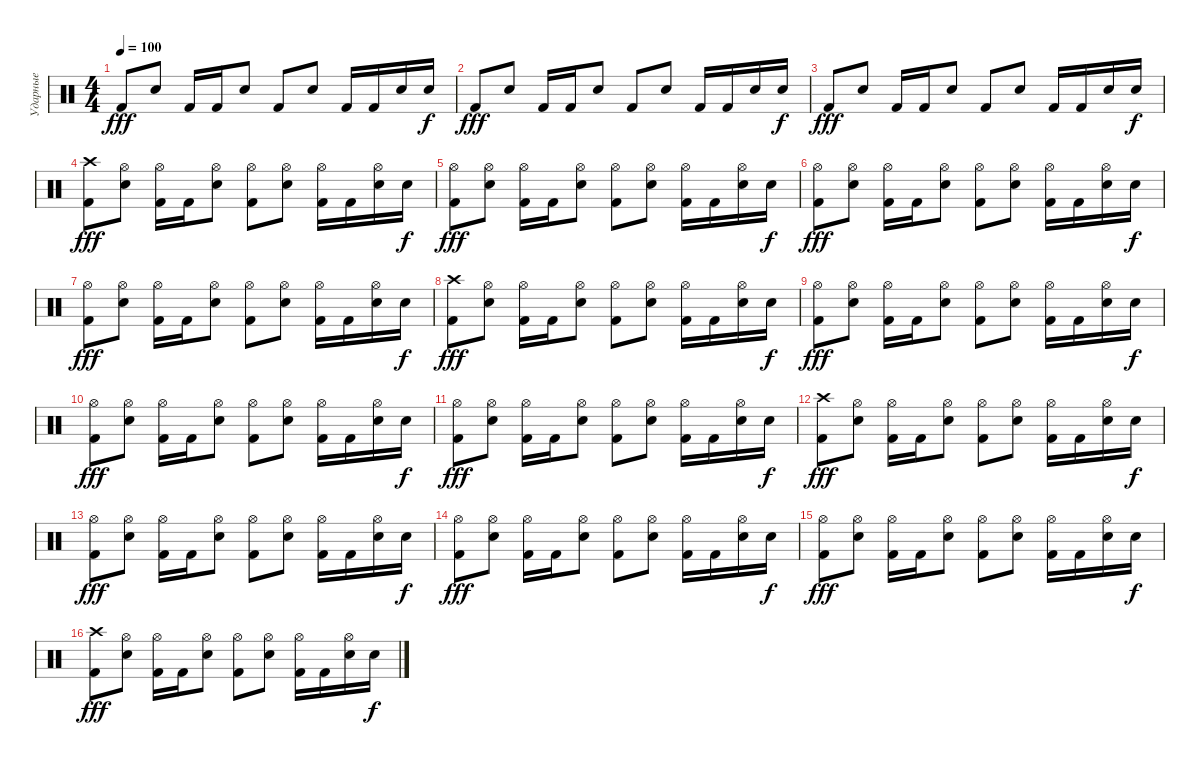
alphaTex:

\track ("Ударные" "Ударные") {instrument percussion}
\staff {score}
\articulation defaults
\ts (4 4)
\tempo 100
\clef neutral
\ks c "Kick (hit) 2".8{dy fff} "Snare (hit) 2".8 "Kick (hit) 2".16 "Kick (hit) 2".16 "Snare (hit) 2".8 "Kick (hit) 2".8 "Snare (hit) 2".8 "Kick (hit) 2".16 "Kick (hit) 2".16 "Snare (hit) 2".16 "Snare (hit) 2".16{dy f}
|
"Kick (hit) 2".8{dy fff} "Snare (hit) 2".8 "Kick (hit) 2".16 "Kick (hit) 2".16 "Snare (hit) 2".8 "Kick (hit) 2".8 "Snare (hit) 2".8 "Kick (hit) 2".16 "Kick (hit) 2".16 "Snare (hit) 2".16 "Snare (hit) 2".16{dy f} |
"Kick (hit) 2".8{dy fff} "Snare (hit) 2".8 "Kick (hit) 2".16 "Kick (hit) 2".16 "Snare (hit) 2".8 "Kick (hit) 2".8 "Snare (hit) 2".8 "Kick (hit) 2".16 "Kick (hit) 2".16 "Snare (hit) 2".16 "Snare (hit) 2".16{dy f} |
("Crash high (hit)" "Kick (hit) 2").8{dy fff} ("Hi-Hat (open)" "Snare (hit) 2").8 ("Hi-Hat (open)" "Kick (hit) 2").16 "Kick (hit) 2".16 ("Hi-Hat (open)" "Snare (hit) 2").8 ("Hi-Hat (open)" "Kick (hit) 2").8 ("Hi-Hat (open)" "Snare (hit) 2").8 ("Hi-Hat (open)" "Kick (hit) 2").16 "Kick (hit) 2".16 ("Hi-Hat (open)" "Snare (hit) 2").16 "Snare (hit) 2".16{dy f} |
("Hi-Hat (open)" "Kick (hit) 2").8{dy fff} ("Hi-Hat (open)" "Snare (hit) 2").8 ("Hi-Hat (open)" "Kick (hit) 2").16 "Kick (hit) 2".16 ("Hi-Hat (open)" "Snare (hit) 2").8 ("Hi-Hat (open)" "Kick (hit) 2").8 ("Hi-Hat (open)" "Snare (hit) 2").8 ("Hi-Hat (open)" "Kick (hit) 2").16 "Kick (hit) 2".16 ("Hi-Hat (open)" "Snare (hit) 2").16 "Snare (hit) 2".16{dy f} |
("Hi-Hat (open)" "Kick (hit) 2").8{dy fff} ("Hi-Hat (open)" "Snare (hit) 2").8 ("Hi-Hat (open)" "Kick (hit) 2").16 "Kick (hit) 2".16 ("Hi-Hat (open)" "Snare (hit) 2").8 ("Hi-Hat (open)" "Kick (hit) 2").8 ("Hi-Hat (open)" "Snare (hit) 2").8 ("Hi-Hat (open)" "Kick (hit) 2").16 "Kick (hit) 2".16 ("Hi-Hat (open)" "Snare (hit) 2").16 "Snare (hit) 2".16{dy f} |
("Hi-Hat (open)" "Kick (hit) 2").8{dy fff} ("Hi-Hat (open)" "Snare (hit) 2").8 ("Hi-Hat (open)" "Kick (hit) 2").16 "Kick (hit) 2".16 ("Hi-Hat (open)" "Snare (hit) 2").8 ("Hi-Hat (open)" "Kick (hit) 2").8 ("Hi-Hat (open)" "Snare (hit) 2").8 ("Hi-Hat (open)" "Kick (hit) 2").16 "Kick (hit) 2".16 ("Hi-Hat (open)" "Snare (hit) 2").16 "Snare (hit) 2".16{dy f} |
("Crash high (hit)" "Kick (hit) 2").8{dy fff} ("Hi-Hat (open)" "Snare (hit) 2").8 ("Hi-Hat (open)" "Kick (hit) 2").16 "Kick (hit) 2".16 ("Hi-Hat (open)" "Snare (hit) 2").8 ("Hi-Hat (open)" "Kick (hit) 2").8 ("Hi-Hat (open)" "Snare (hit) 2").8 ("Hi-Hat (open)" "Kick (hit) 2").16 "Kick (hit) 2".16 ("Hi-Hat (open)" "Snare (hit) 2").16 "Snare (hit) 2".16{dy f} |
("Hi-Hat (open)" "Kick (hit) 2").8{dy fff} ("Hi-Hat (open)" "Snare (hit) 2").8 ("Hi-Hat (open)" "Kick (hit) 2").16 "Kick (hit) 2".16 ("Hi-Hat (open)" "Snare (hit) 2").8 ("Hi-Hat (open)" "Kick (hit) 2").8 ("Hi-Hat (open)" "Snare (hit) 2").8 ("Hi-Hat (open)" "Kick (hit) 2").16 "Kick (hit) 2".16 ("Hi-Hat (open)" "Snare (hit) 2").16 "Snare (hit) 2".16{dy f} |
("Hi-Hat (open)" "Kick (hit) 2").8{dy fff} ("Hi-Hat (open)" "Snare (hit) 2").8 ("Hi-Hat (open)" "Kick (hit) 2").16 "Kick (hit) 2".16 ("Hi-Hat (open)" "Snare (hit) 2").8 ("Hi-Hat (open)" "Kick (hit) 2").8 ("Hi-Hat (open)" "Snare (hit) 2").8 ("Hi-Hat (open)" "Kick (hit) 2").16 "Kick (hit) 2".16 ("Hi-Hat (open)" "Snare (hit) 2").16 "Snare (hit) 2".16{dy f} |
("Hi-Hat (open)" "Kick (hit) 2").8{dy fff} ("Hi-Hat (open)" "Snare (hit) 2").8 ("Hi-Hat (open)" "Kick (hit) 2").16 "Kick (hit) 2".16 ("Hi-Hat (open)" "Snare (hit) 2").8 ("Hi-Hat (open)" "Kick (hit) 2").8 ("Hi-Hat (open)" "Snare (hit) 2").8 ("Hi-Hat (open)" "Kick (hit) 2").16 "Kick (hit) 2".16 ("Hi-Hat (open)" "Snare (hit) 2").16 "Snare (hit) 2".16{dy f} |
("Crash high (hit)" "Kick (hit) 2").8{dy fff} ("Hi-Hat (open)" "Snare (hit) 2").8 ("Hi-Hat (open)" "Kick (hit) 2").16 "Kick (hit) 2".16 ("Hi-Hat (open)" "Snare (hit) 2").8 ("Hi-Hat (open)" "Kick (hit) 2").8 ("Hi-Hat (open)" "Snare (hit) 2").8 ("Hi-Hat (open)" "Kick (hit) 2").16 "Kick (hit) 2".16 ("Hi-Hat (open)" "Snare (hit) 2").16 "Snare (hit) 2".16{dy f} |
("Hi-Hat (open)" "Kick (hit) 2").8{dy fff} ("Hi-Hat (open)" "Snare (hit) 2").8 ("Hi-Hat (open)" "Kick (hit) 2").16 "Kick (hit) 2".16 ("Hi-Hat (open)" "Snare (hit) 2").8 ("Hi-Hat (open)" "Kick (hit) 2").8 ("Hi-Hat (open)" "Snare (hit) 2").8 ("Hi-Hat (open)" "Kick (hit) 2").16 "Kick (hit) 2".16 ("Hi-Hat (open)" "Snare (hit) 2").16 "Snare (hit) 2".16{dy f} |
("Hi-Hat (open)" "Kick (hit) 2").8{dy fff} ("Hi-Hat (open)" "Snare (hit) 2").8 ("Hi-Hat (open)" "Kick (hit) 2").16 "Kick (hit) 2".16 ("Hi-Hat (open)" "Snare (hit) 2").8 ("Hi-Hat (open)" "Kick (hit) 2").8 ("Hi-Hat (open)" "Snare (hit) 2").8 ("Hi-Hat (open)" "Kick (hit) 2").16 "Kick (hit) 2".16 ("Hi-Hat (open)" "Snare (hit) 2").16 "Snare (hit) 2".16{dy f} |
("Hi-Hat (open)" "Kick (hit) 2").8{dy fff} ("Hi-Hat (open)" "Snare (hit) 2").8 ("Hi-Hat (open)" "Kick (hit) 2").16 "Kick (hit) 2".16 ("Hi-Hat (open)" "Snare (hit) 2").8 ("Hi-Hat (open)" "Kick (hit) 2").8 ("Hi-Hat (open)" "Snare (hit) 2").8 ("Hi-Hat (open)" "Kick (hit) 2").16 "Kick (hit) 2".16 ("Hi-Hat (open)" "Snare (hit) 2").16 "Snare (hit) 2".16{dy f} |
("Crash high (hit)" "Kick (hit) 2").8{dy fff} ("Hi-Hat (open)" "Snare (hit) 2").8 ("Hi-Hat (open)" "Kick (hit) 2").16 "Kick (hit) 2".16 ("Hi-Hat (open)" "Snare (hit) 2").8 ("Hi-Hat (open)" "Kick (hit) 2").8 ("Hi-Hat (open)" "Snare (hit) 2").8 ("Hi-Hat (open)" "Kick (hit) 2").16 "Kick (hit) 2".16 ("Hi-Hat (open)" "Snare (hit) 2").16 "Snare (hit) 2".16{dy f}
